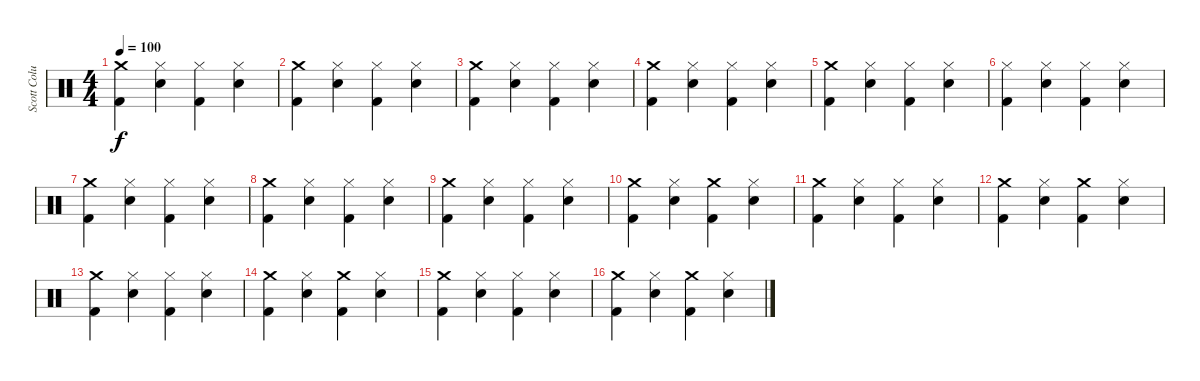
\track ("Scott Columbus" "Scott Colu") {instrument percussion}
\staff {score}
\articulation defaults
\ts (4 4)
\tempo 100
\clef neutral
\ks c
("Crash medium (hit)" "Kick (hit) 2").4{dy f} ("Hi-Hat (closed)" "Snare (hit) 2").4 ("Hi-Hat (closed)" "Kick (hit) 2").4 ("Hi-Hat (closed)" "Snare (hit) 2").4 |
("Crash medium (hit)" "Kick (hit) 2").4 ("Hi-Hat (closed)" "Snare (hit) 2").4 ("Hi-Hat (closed)" "Kick (hit) 2").4 ("Hi-Hat (closed)" "Snare (hit) 2").4 |
("Crash medium (hit)" "Kick (hit) 2").4 ("Hi-Hat (closed)" "Snare (hit) 2").4 ("Hi-Hat (closed)" "Kick (hit) 2").4 ("Hi-Hat (closed)" "Snare (hit) 2").4 |
("Crash medium (hit)" "Kick (hit) 2").4 ("Hi-Hat (closed)" "Snare (hit) 2").4 ("Hi-Hat (closed)" "Kick (hit) 2").4 ("Hi-Hat (closed)" "Snare (hit) 2").4 |
("Crash medium (hit)" "Kick (hit) 2").4 ("Hi-Hat (closed)" "Snare (hit) 2").4 ("Hi-Hat (closed)" "Kick (hit) 2").4 ("Hi-Hat (closed)" "Snare (hit) 2").4 |
("Hi-Hat (closed)" "Kick (hit) 2").4 ("Hi-Hat (closed)" "Snare (hit) 2").4 ("Hi-Hat (closed)" "Kick (hit) 2").4 ("Hi-Hat (closed)" "Snare (hit) 2").4 |
("Crash medium (hit)" "Kick (hit) 2").4 ("Hi-Hat (closed)" "Snare (hit) 2").4 ("Hi-Hat (closed)" "Kick (hit) 2").4 ("Hi-Hat (closed)" "Snare (hit) 2").4 |
("Crash medium (hit)" "Kick (hit) 2").4 ("Hi-Hat (closed)" "Snare (hit) 2").4 ("Hi-Hat (closed)" "Kick (hit) 2").4 ("Hi-Hat (closed)" "Snare (hit) 2").4 |
("Crash medium (hit)" "Kick (hit) 2").4 ("Hi-Hat (closed)" "Snare (hit) 2").4 ("Hi-Hat (closed)" "Kick (hit) 2").4 ("Hi-Hat (closed)" "Snare (hit) 2").4 |
("Crash medium (hit)" "Kick (hit) 2").4 ("Hi-Hat (closed)" "Snare (hit) 2").4 ("Crash medium (hit)" "Kick (hit) 2").4 ("Hi-Hat (closed)" "Snare (hit) 2").4 |
("Crash medium (hit)" "Kick (hit) 2").4 ("Hi-Hat (closed)" "Snare (hit) 2").4 ("Hi-Hat (closed)" "Kick (hit) 2").4 ("Hi-Hat (closed)" "Snare (hit) 2").4 |
("Crash medium (hit)" "Kick (hit) 2").4 ("Hi-Hat (closed)" "Snare (hit) 2").4 ("Crash medium (hit)" "Kick (hit) 2").4 ("Hi-Hat (closed)" "Snare (hit) 2").4 |
("Crash medium (hit)" "Kick (hit) 2").4 ("Hi-Hat (closed)" "Snare (hit) 2").4 ("Hi-Hat (closed)" "Kick (hit) 2").4 ("Hi-Hat (closed)" "Snare (hit) 2").4 |
("Crash medium (hit)" "Kick (hit) 2").4 ("Hi-Hat (closed)" "Snare (hit) 2").4 ("Crash medium (hit)" "Kick (hit) 2").4 ("Hi-Hat (closed)" "Snare (hit) 2").4 |
("Crash medium (hit)" "Kick (hit) 2").4 ("Hi-Hat (closed)" "Snare (hit) 2").4 ("Hi-Hat (closed)" "Kick (hit) 2").4 ("Hi-Hat (closed)" "Snare (hit) 2").4 |
("Crash medium (hit)" "Kick (hit) 2").4 ("Hi-Hat (closed)" "Snare (hit) 2").4 ("Crash medium (hit)" "Kick (hit) 2").4 ("Hi-Hat (closed)" "Snare (hit) 2").4
